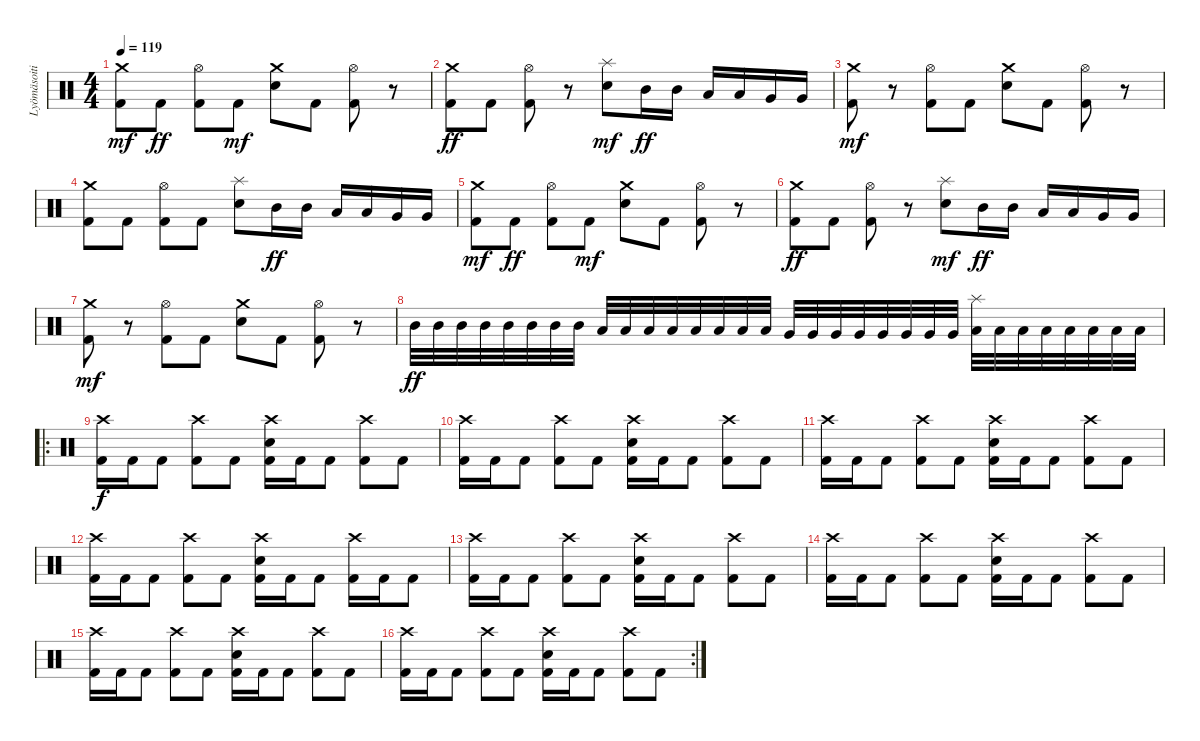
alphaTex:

\track ("Lyömäsoitin" "Lyömäsoiti") {instrument percussion}
\staff {score}
\articulation defaults
\ts (4 4)
\tempo 119
\clef neutral
\ks c
("Crash medium (hit)" "Kick (hit) 2").8{dy mf} "Kick (hit) 2".8{dy ff} ("Hi-Hat (open)" "Kick (hit) 2").8 "Kick (hit) 2".8{dy mf} ("Crash medium (hit)" "Snare (hit) 2").8 "Kick (hit) 2".8 ("Hi-Hat (open)" "Kick (hit) 2").8 r.8 |
("Crash medium (hit)" "Kick (hit) 2").8{dy ff} "Kick (hit) 2".8 ("Hi-Hat (open)" "Kick (hit) 2").8 r.8 ("Splash (hit)" "Snare (hit) 2").8{dy mf} "Mid Tom (hit)".16{dy ff} "Mid Tom (hit)".16 "Low Tom (hit)".16 "Low Tom (hit)".16 "Very Low Tom (hit)".16 "Very Low Tom (hit)".16 |
("Crash medium (hit)" "Kick (hit) 2").8{dy mf} r.8 ("Hi-Hat (open)" "Kick (hit) 2").8 "Kick (hit) 2".8 ("Crash medium (hit)" "Snare (hit) 2").8 "Kick (hit) 2".8 ("Hi-Hat (open)" "Kick (hit) 2").8 r.8 |
("Crash medium (hit)" "Kick (hit) 2").8 "Kick (hit) 2".8 ("Hi-Hat (open)" "Kick (hit) 2").8 "Kick (hit) 2".8 ("Splash (hit)" "Snare (hit) 2").8 "Mid Tom (hit)".16{dy ff} "Mid Tom (hit)".16 "Low Tom (hit)".16 "Low Tom (hit)".16 "Very Low Tom (hit)".16 "Very Low Tom (hit)".16 |
("Crash medium (hit)" "Kick (hit) 2").8{dy mf} "Kick (hit) 2".8{dy ff} ("Hi-Hat (open)" "Kick (hit) 2").8 "Kick (hit) 2".8{dy mf} ("Crash medium (hit)" "Snare (hit) 2").8 "Kick (hit) 2".8 ("Hi-Hat (open)" "Kick (hit) 2").8 r.8 |
("Crash medium (hit)" "Kick (hit) 2").8{dy ff} "Kick (hit) 2".8 ("Hi-Hat (open)" "Kick (hit) 2").8 r.8 ("Splash (hit)" "Snare (hit) 2").8{dy mf} "Mid Tom (hit)".16{dy ff} "Mid Tom (hit)".16 "Low Tom (hit)".16 "Low Tom (hit)".16 "Very Low Tom (hit)".16 "Very Low Tom (hit)".16 |
("Crash medium (hit)" "Kick (hit) 2").8{dy mf} r.8 ("Hi-Hat (open)" "Kick (hit) 2").8 "Kick (hit) 2".8 ("Crash medium (hit)" "Snare (hit) 2").8 "Kick (hit) 2".8 ("Hi-Hat (open)" "Kick (hit) 2").8 r.8 |
"Mid Tom (hit)".32{dy ff} "Mid Tom (hit)".32 "Mid Tom (hit)".32 "Mid Tom (hit)".32 "Mid Tom (hit)".32 "Mid Tom (hit)".32 "Mid Tom (hit)".32 "Mid Tom (hit)".32 "Low Tom (hit)".32 "Low Tom (hit)".32 "Low Tom (hit)".32 "Low Tom (hit)".32 "Low Tom (hit)".32 "Low Tom (hit)".32 "Low Tom (hit)".32 "Low Tom (hit)".32 "Very Low Tom (hit)".32 "Very Low Tom (hit)".32 "Very Low Tom (hit)".32 "Very Low Tom (hit)".32 "Very Low Tom (hit)".32 "Very Low Tom (hit)".32 "Very Low Tom (hit)".32 "Very Low Tom (hit)".32 ("Splash (hit)" "Low Floor Tom (hit)").32 "Low Floor Tom (hit)".32 "Low Floor Tom (hit)".32 "Low Floor Tom (hit)".32 "Low Floor Tom (hit)".32 "Low Floor Tom (hit)".32 "Low Floor Tom (hit)".32 "Low Floor Tom (hit)".32 |
\ro
("Crash high (hit)" "Kick (hit) 2").16{dy f} "Kick (hit) 2".16 "Kick (hit) 2".8 ("Crash high (hit)" "Kick (hit) 2").8 "Kick (hit) 2".8 ("Crash high (hit)" "Snare (hit) 2" "Kick (hit) 2").16 "Kick (hit) 2".16 "Kick (hit) 2".8 ("Crash high (hit)" "Kick (hit) 2").8 "Kick (hit) 2".8 |
("Crash high (hit)" "Kick (hit) 2").16 "Kick (hit) 2".16 "Kick (hit) 2".8 ("Crash high (hit)" "Kick (hit) 2").8 "Kick (hit) 2".8 ("Crash high (hit)" "Snare (hit) 2" "Kick (hit) 2").16 "Kick (hit) 2".16 "Kick (hit) 2".8 ("Crash high (hit)" "Kick (hit) 2").8 "Kick (hit) 2".8 |
("Crash high (hit)" "Kick (hit) 2").16 "Kick (hit) 2".16 "Kick (hit) 2".8 ("Crash high (hit)" "Kick (hit) 2").8 "Kick (hit) 2".8 ("Crash high (hit)" "Snare (hit) 2" "Kick (hit) 2").16 "Kick (hit) 2".16 "Kick (hit) 2".8 ("Crash high (hit)" "Kick (hit) 2").8 "Kick (hit) 2".8 |
("Crash high (hit)" "Kick (hit) 2").16 "Kick (hit) 2".16 "Kick (hit) 2".8 ("Crash high (hit)" "Kick (hit) 2").8 "Kick (hit) 2".8 ("Crash high (hit)" "Snare (hit) 2" "Kick (hit) 2").16 "Kick (hit) 2".16 "Kick (hit) 2".8 ("Crash high (hit)" "Kick (hit) 2").16 "Kick (hit) 2".16 "Kick (hit) 2".8 |
("Crash high (hit)" "Kick (hit) 2").16 "Kick (hit) 2".16 "Kick (hit) 2".8 ("Crash high (hit)" "Kick (hit) 2").8 "Kick (hit) 2".8 ("Crash high (hit)" "Snare (hit) 2" "Kick (hit) 2").16 "Kick (hit) 2".16 "Kick (hit) 2".8 ("Crash high (hit)" "Kick (hit) 2").8 "Kick (hit) 2".8 |
("Crash high (hit)" "Kick (hit) 2").16 "Kick (hit) 2".16 "Kick (hit) 2".8 ("Crash high (hit)" "Kick (hit) 2").8 "Kick (hit) 2".8 ("Crash high (hit)" "Snare (hit) 2" "Kick (hit) 2").16 "Kick (hit) 2".16 "Kick (hit) 2".8 ("Crash high (hit)" "Kick (hit) 2").8 "Kick (hit) 2".8 |
("Crash high (hit)" "Kick (hit) 2").16 "Kick (hit) 2".16 "Kick (hit) 2".8 ("Crash high (hit)" "Kick (hit) 2").8 "Kick (hit) 2".8 ("Crash high (hit)" "Snare (hit) 2" "Kick (hit) 2").16 "Kick (hit) 2".16 "Kick (hit) 2".8 ("Crash high (hit)" "Kick (hit) 2").8 "Kick (hit) 2".8 |
\rc 2
("Crash high (hit)" "Kick (hit) 2").16 "Kick (hit) 2".16 "Kick (hit) 2".8 ("Crash high (hit)" "Kick (hit) 2").8 "Kick (hit) 2".8 ("Crash high (hit)" "Snare (hit) 2" "Kick (hit) 2").16 "Kick (hit) 2".16 "Kick (hit) 2".8 ("Crash high (hit)" "Kick (hit) 2").8 "Kick (hit) 2".8
